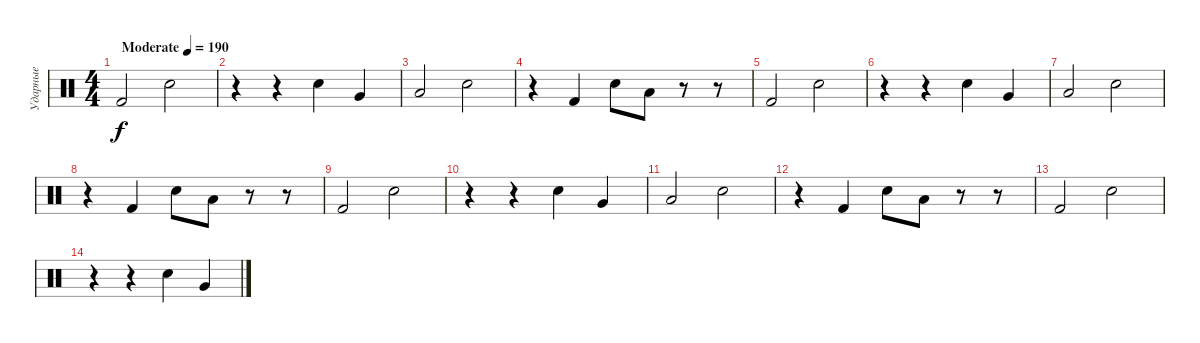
\track ("Ударные" "Ударные") {instrument percussion}
\staff {score}
\articulation defaults
\ts (4 4)
\tempo (190 "Moderate")
\clef neutral
\ks c "Kick (hit) 2".2{dy f} "Snare (hit) 2".2
|
r.4 r.4 "Snare (hit) 2".4 "Very Low Tom (hit)".4 |
"Low Floor Tom (hit)".2 "Snare (hit) 2".2 |
r.4 "Kick (hit) 2".4 "Snare (hit) 2".8 "Low Floor Tom (hit)".8 r.8 r.8 |
"Kick (hit) 2".2 "Snare (hit) 2".2 |
r.4 r.4 "Snare (hit) 2".4 "Very Low Tom (hit)".4 |
"Low Floor Tom (hit)".2 "Snare (hit) 2".2 |
r.4 "Kick (hit) 2".4 "Snare (hit) 2".8 "Low Floor Tom (hit)".8 r.8 r.8 |
"Kick (hit) 2".2 "Snare (hit) 2".2 |
r.4 r.4 "Snare (hit) 2".4 "Very Low Tom (hit)".4 |
"Low Floor Tom (hit)".2 "Snare (hit) 2".2 |
r.4 "Kick (hit) 2".4 "Snare (hit) 2".8 "Low Floor Tom (hit)".8 r.8 r.8 |
"Kick (hit) 2".2 "Snare (hit) 2".2 |
r.4 r.4 "Snare (hit) 2".4 "Very Low Tom (hit)".4
